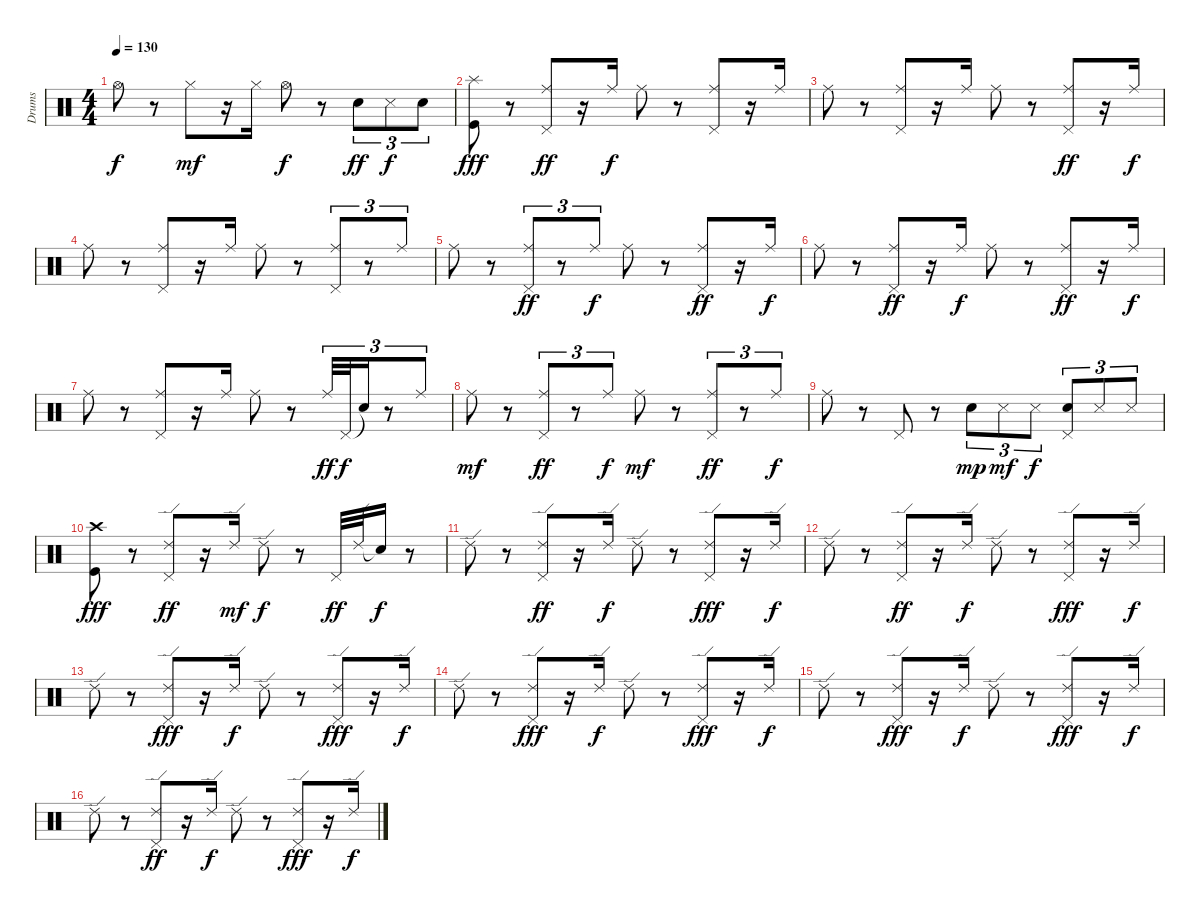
\track ("Drums" "Drums") {instrument percussion}
\staff {score}
\articulation defaults
\ts (4 4)
\tempo 130
\clef neutral
\ks c "Hi-Hat (open)".8{dy f}
r.8 "Hi-Hat (closed)".8{dy mf} r.16 "Hi-Hat (closed)".16 "Hi-Hat (open)".8{dy f} r.8 "Snare (hit) 2".8{tu (3 2) dy ff} "Snare (side stick) 3".8{tu (3 2) dy f} "Snare (hit) 2".8{tu (3 2)} |
("Splash (hit)" "Kick (hit)").8{dy fff} r.8 ("Ride (middle)" "Pedal Hi-Hat (hit)").8{dy ff} r.16 "Ride (middle)".16{dy f} "Ride (middle)".8 r.8 ("Ride (middle)" "Pedal Hi-Hat (hit)").8 r.16 "Ride (middle)".16 |
"Ride (middle)".8 r.8 ("Ride (middle)" "Pedal Hi-Hat (hit)").8 r.16 "Ride (middle)".16 "Ride (middle)".8 r.8 ("Ride (middle)" "Pedal Hi-Hat (hit)").8{dy ff} r.16 "Ride (middle)".16{dy f} |
"Ride (middle)".8 r.8 ("Ride (middle)" "Pedal Hi-Hat (hit)").8 r.16 "Ride (middle)".16 "Ride (middle)".8 r.8 ("Ride (middle)" "Pedal Hi-Hat (hit)").8{tu (3 2)} r.8{tu (3 2)} "Ride (middle)".8{tu (3 2)} |
"Ride (middle)".8 r.8 ("Ride (middle)" "Pedal Hi-Hat (hit)").8{tu (3 2) dy ff} r.8{tu (3 2)} "Ride (middle)".8{tu (3 2) dy f} "Ride (middle)".8 r.8 ("Ride (middle)" "Pedal Hi-Hat (hit)").8{dy ff} r.16 "Ride (middle)".16{dy f} |
"Ride (middle)".8 r.8 ("Ride (middle)" "Pedal Hi-Hat (hit)").8{dy ff} r.16 "Ride (middle)".16{dy f} "Ride (middle)".8 r.8 ("Ride (middle)" "Pedal Hi-Hat (hit)").8{dy ff} r.16 "Ride (middle)".16{dy f} |
"Ride (middle)".8 r.8 ("Ride (middle)" "Pedal Hi-Hat (hit)").8 r.16 "Ride (middle)".16 "Ride (middle)".8 r.8 "Ride (middle)".32{tu (3 2) dy ff} "Pedal Hi-Hat (hit)".32{tu (3 2) dy f} "Snare (hit)"{t}.16{tu (3 2)} r.8{tu (3 2)} "Ride (middle)".8{tu (3 2)} |
"Ride (middle)".8{dy mf} r.8 ("Ride (middle)" "Pedal Hi-Hat (hit)").8{tu (3 2) dy ff} r.8{tu (3 2)} "Ride (middle)".8{tu (3 2) dy f} "Ride (middle)".8{dy mf} r.8 ("Ride (middle)" "Pedal Hi-Hat (hit)").8{tu (3 2) dy ff} r.8{tu (3 2)} "Ride (middle)".8{tu (3 2) dy f} |
"Ride (middle)".8 r.8 "Pedal Hi-Hat (hit)".8 r.8 "Snare (hit) 2".8{tu (3 2) dy mp} "Snare (side stick) 3".8{tu (3 2) dy mf} "Snare (side stick) 3".8{tu (3 2) dy f} ("Pedal Hi-Hat (hit)" "Snare (hit) 2").8{tu (3 2)} "Snare (side stick) 3".8{tu (3 2)} "Snare (side stick) 3".8{tu (3 2)} |
("Crash high (hit)" "Kick (hit)").8{dy fff} r.8 ("Ride (edge) 2" "Pedal Hi-Hat (hit)").8{dy ff} r.16 "Ride (edge) 2".16{dy mf} "Ride (edge) 2".8{dy f} r.8 "Pedal Hi-Hat (hit)".32{dy ff} "Ride (edge) 2".32 "Snare (hit)"{t}.16{dy f} r.8 |
"Ride (edge) 2".8 r.8 ("Ride (edge) 2" "Pedal Hi-Hat (hit)").8{dy ff} r.16 "Ride (edge) 2".16{dy f} "Ride (edge) 2".8 r.8 ("Pedal Hi-Hat (hit)" "Ride (edge) 2").8{dy fff} r.16 "Ride (edge) 2".16{dy f} |
"Ride (edge) 2".8 r.8 ("Ride (edge) 2" "Pedal Hi-Hat (hit)").8{dy ff} r.16 "Ride (edge) 2".16{dy f} "Ride (edge) 2".8 r.8 ("Ride (edge) 2" "Pedal Hi-Hat (hit)").8{dy fff} r.16 "Ride (edge) 2".16{dy f} |
"Ride (edge) 2".8 r.8 ("Ride (edge) 2" "Pedal Hi-Hat (hit)").8{dy fff} r.16 "Ride (edge) 2".16{dy f} "Ride (edge) 2".8 r.8 ("Ride (edge) 2" "Pedal Hi-Hat (hit)").8{dy fff} r.16 "Ride (edge) 2".16{dy f} |
"Ride (edge) 2".8 r.8 ("Ride (edge) 2" "Pedal Hi-Hat (hit)").8{dy fff} r.16 "Ride (edge) 2".16{dy f} "Ride (edge) 2".8 r.8 ("Ride (edge) 2" "Pedal Hi-Hat (hit)").8{dy fff} r.16 "Ride (edge) 2".16{dy f} |
"Ride (edge) 2".8 r.8 ("Ride (edge) 2" "Pedal Hi-Hat (hit)").8{dy fff} r.16 "Ride (edge) 2".16{dy f} "Ride (edge) 2".8 r.8 ("Ride (edge) 2" "Pedal Hi-Hat (hit)").8{dy fff} r.16 "Ride (edge) 2".16{dy f} |
"Ride (edge) 2".8 r.8 ("Ride (edge) 2" "Pedal Hi-Hat (hit)").8{dy ff} r.16 "Ride (edge) 2".16{dy f} "Ride (edge) 2".8 r.8 ("Ride (edge) 2" "Pedal Hi-Hat (hit)").8{dy fff} r.16 "Ride (edge) 2".16{dy f}
